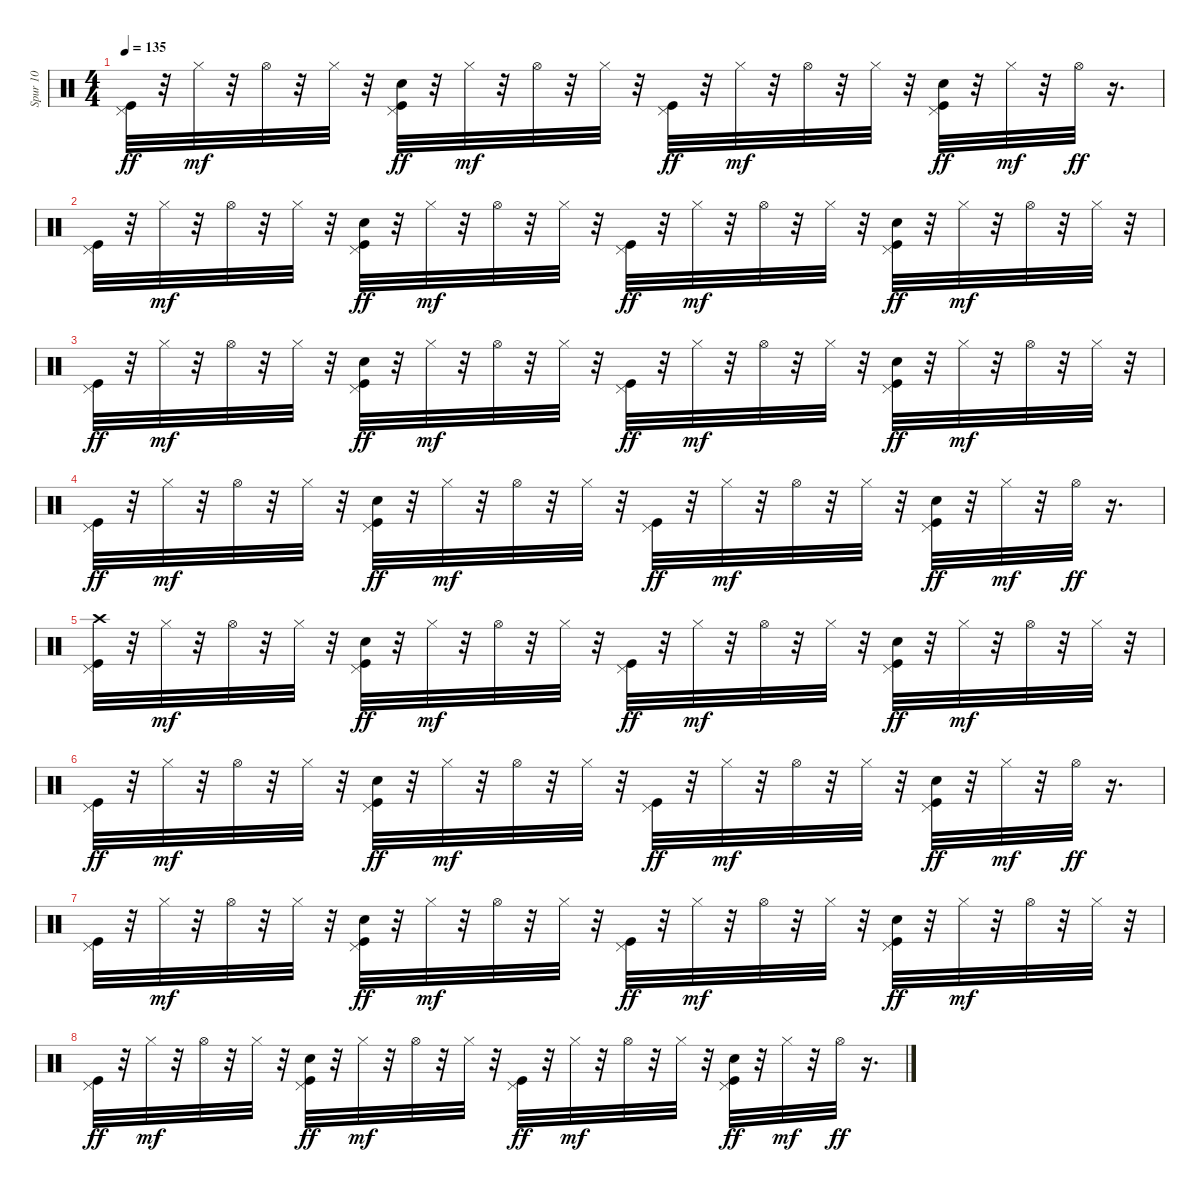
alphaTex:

\track ("Spur 10" "Spur 10") {instrument percussion}
\staff {score}
\articulation defaults
\ts (4 4)
\tempo 135
\clef neutral
\ks c
("Kick (hit)" "Pedal Hi-Hat (hit)").32{dy ff} r.32 "Hi-Hat (closed)".32{dy mf} r.32 "Hi-Hat (open)".32 r.32 "Hi-Hat (closed)".32 r.32 ("Kick (hit)" "Hand Clap (hit)" "Pedal Hi-Hat (hit)").32{dy ff} r.32 "Hi-Hat (closed)".32{dy mf} r.32 "Hi-Hat (open)".32 r.32 "Hi-Hat (closed)".32 r.32 ("Kick (hit)" "Pedal Hi-Hat (hit)").32{dy ff} r.32 "Hi-Hat (closed)".32{dy mf} r.32 "Hi-Hat (open)".32 r.32 "Hi-Hat (closed)".32 r.32 ("Kick (hit)" "Hand Clap (hit)" "Pedal Hi-Hat (hit)").32{dy ff} r.32 "Hi-Hat (closed)".32{dy mf} r.32 "Hi-Hat (open)".32{dy ff} r.16{d} |
("Kick (hit)" "Pedal Hi-Hat (hit)").32 r.32 "Hi-Hat (closed)".32{dy mf} r.32 "Hi-Hat (open)".32 r.32 "Hi-Hat (closed)".32 r.32 ("Kick (hit)" "Hand Clap (hit)" "Pedal Hi-Hat (hit)").32{dy ff} r.32 "Hi-Hat (closed)".32{dy mf} r.32 "Hi-Hat (open)".32 r.32 "Hi-Hat (closed)".32 r.32 ("Kick (hit)" "Pedal Hi-Hat (hit)").32{dy ff} r.32 "Hi-Hat (closed)".32{dy mf} r.32 "Hi-Hat (open)".32 r.32 "Hi-Hat (closed)".32 r.32 ("Kick (hit)" "Hand Clap (hit)" "Pedal Hi-Hat (hit)").32{dy ff} r.32 "Hi-Hat (closed)".32{dy mf} r.32 "Hi-Hat (open)".32 r.32 "Hi-Hat (closed)".32 r.32 |
("Kick (hit)" "Pedal Hi-Hat (hit)").32{dy ff} r.32 "Hi-Hat (closed)".32{dy mf} r.32 "Hi-Hat (open)".32 r.32 "Hi-Hat (closed)".32 r.32 ("Kick (hit)" "Hand Clap (hit)" "Pedal Hi-Hat (hit)").32{dy ff} r.32 "Hi-Hat (closed)".32{dy mf} r.32 "Hi-Hat (open)".32 r.32 "Hi-Hat (closed)".32 r.32 ("Kick (hit)" "Pedal Hi-Hat (hit)").32{dy ff} r.32 "Hi-Hat (closed)".32{dy mf} r.32 "Hi-Hat (open)".32 r.32 "Hi-Hat (closed)".32 r.32 ("Kick (hit)" "Hand Clap (hit)" "Pedal Hi-Hat (hit)").32{dy ff} r.32 "Hi-Hat (closed)".32{dy mf} r.32 "Hi-Hat (open)".32 r.32 "Hi-Hat (closed)".32 r.32 |
("Kick (hit)" "Pedal Hi-Hat (hit)").32{dy ff} r.32 "Hi-Hat (closed)".32{dy mf} r.32 "Hi-Hat (open)".32 r.32 "Hi-Hat (closed)".32 r.32 ("Kick (hit)" "Hand Clap (hit)" "Pedal Hi-Hat (hit)").32{dy ff} r.32 "Hi-Hat (closed)".32{dy mf} r.32 "Hi-Hat (open)".32 r.32 "Hi-Hat (closed)".32 r.32 ("Kick (hit)" "Pedal Hi-Hat (hit)").32{dy ff} r.32 "Hi-Hat (closed)".32{dy mf} r.32 "Hi-Hat (open)".32 r.32 "Hi-Hat (closed)".32 r.32 ("Kick (hit)" "Hand Clap (hit)" "Pedal Hi-Hat (hit)").32{dy ff} r.32 "Hi-Hat (closed)".32{dy mf} r.32 "Hi-Hat (open)".32{dy ff} r.16{d} |
("Crash high (hit)" "Kick (hit)" "Pedal Hi-Hat (hit)").32 r.32 "Hi-Hat (closed)".32{dy mf} r.32 "Hi-Hat (open)".32 r.32 "Hi-Hat (closed)".32 r.32 ("Kick (hit)" "Hand Clap (hit)" "Pedal Hi-Hat (hit)").32{dy ff} r.32 "Hi-Hat (closed)".32{dy mf} r.32 "Hi-Hat (open)".32 r.32 "Hi-Hat (closed)".32 r.32 ("Kick (hit)" "Pedal Hi-Hat (hit)").32{dy ff} r.32 "Hi-Hat (closed)".32{dy mf} r.32 "Hi-Hat (open)".32 r.32 "Hi-Hat (closed)".32 r.32 ("Kick (hit)" "Hand Clap (hit)" "Pedal Hi-Hat (hit)").32{dy ff} r.32 "Hi-Hat (closed)".32{dy mf} r.32 "Hi-Hat (open)".32 r.32 "Hi-Hat (closed)".32 r.32 |
("Kick (hit)" "Pedal Hi-Hat (hit)").32{dy ff} r.32 "Hi-Hat (closed)".32{dy mf} r.32 "Hi-Hat (open)".32 r.32 "Hi-Hat (closed)".32 r.32 ("Kick (hit)" "Hand Clap (hit)" "Pedal Hi-Hat (hit)").32{dy ff} r.32 "Hi-Hat (closed)".32{dy mf} r.32 "Hi-Hat (open)".32 r.32 "Hi-Hat (closed)".32 r.32 ("Kick (hit)" "Pedal Hi-Hat (hit)").32{dy ff} r.32 "Hi-Hat (closed)".32{dy mf} r.32 "Hi-Hat (open)".32 r.32 "Hi-Hat (closed)".32 r.32 ("Kick (hit)" "Hand Clap (hit)" "Pedal Hi-Hat (hit)").32{dy ff} r.32 "Hi-Hat (closed)".32{dy mf} r.32 "Hi-Hat (open)".32{dy ff} r.16{d} |
("Kick (hit)" "Pedal Hi-Hat (hit)").32 r.32 "Hi-Hat (closed)".32{dy mf} r.32 "Hi-Hat (open)".32 r.32 "Hi-Hat (closed)".32 r.32 ("Kick (hit)" "Hand Clap (hit)" "Pedal Hi-Hat (hit)").32{dy ff} r.32 "Hi-Hat (closed)".32{dy mf} r.32 "Hi-Hat (open)".32 r.32 "Hi-Hat (closed)".32 r.32 ("Kick (hit)" "Pedal Hi-Hat (hit)").32{dy ff} r.32 "Hi-Hat (closed)".32{dy mf} r.32 "Hi-Hat (open)".32 r.32 "Hi-Hat (closed)".32 r.32 ("Kick (hit)" "Hand Clap (hit)" "Pedal Hi-Hat (hit)").32{dy ff} r.32 "Hi-Hat (closed)".32{dy mf} r.32 "Hi-Hat (open)".32 r.32 "Hi-Hat (closed)".32 r.32 |
("Kick (hit)" "Pedal Hi-Hat (hit)").32{dy ff} r.32 "Hi-Hat (closed)".32{dy mf} r.32 "Hi-Hat (open)".32 r.32 "Hi-Hat (closed)".32 r.32 ("Kick (hit)" "Hand Clap (hit)" "Pedal Hi-Hat (hit)").32{dy ff} r.32 "Hi-Hat (closed)".32{dy mf} r.32 "Hi-Hat (open)".32 r.32 "Hi-Hat (closed)".32 r.32 ("Kick (hit)" "Pedal Hi-Hat (hit)").32{dy ff} r.32 "Hi-Hat (closed)".32{dy mf} r.32 "Hi-Hat (open)".32 r.32 "Hi-Hat (closed)".32 r.32 ("Kick (hit)" "Hand Clap (hit)" "Pedal Hi-Hat (hit)").32{dy ff} r.32 "Hi-Hat (closed)".32{dy mf} r.32 "Hi-Hat (open)".32{dy ff} r.16{d}
